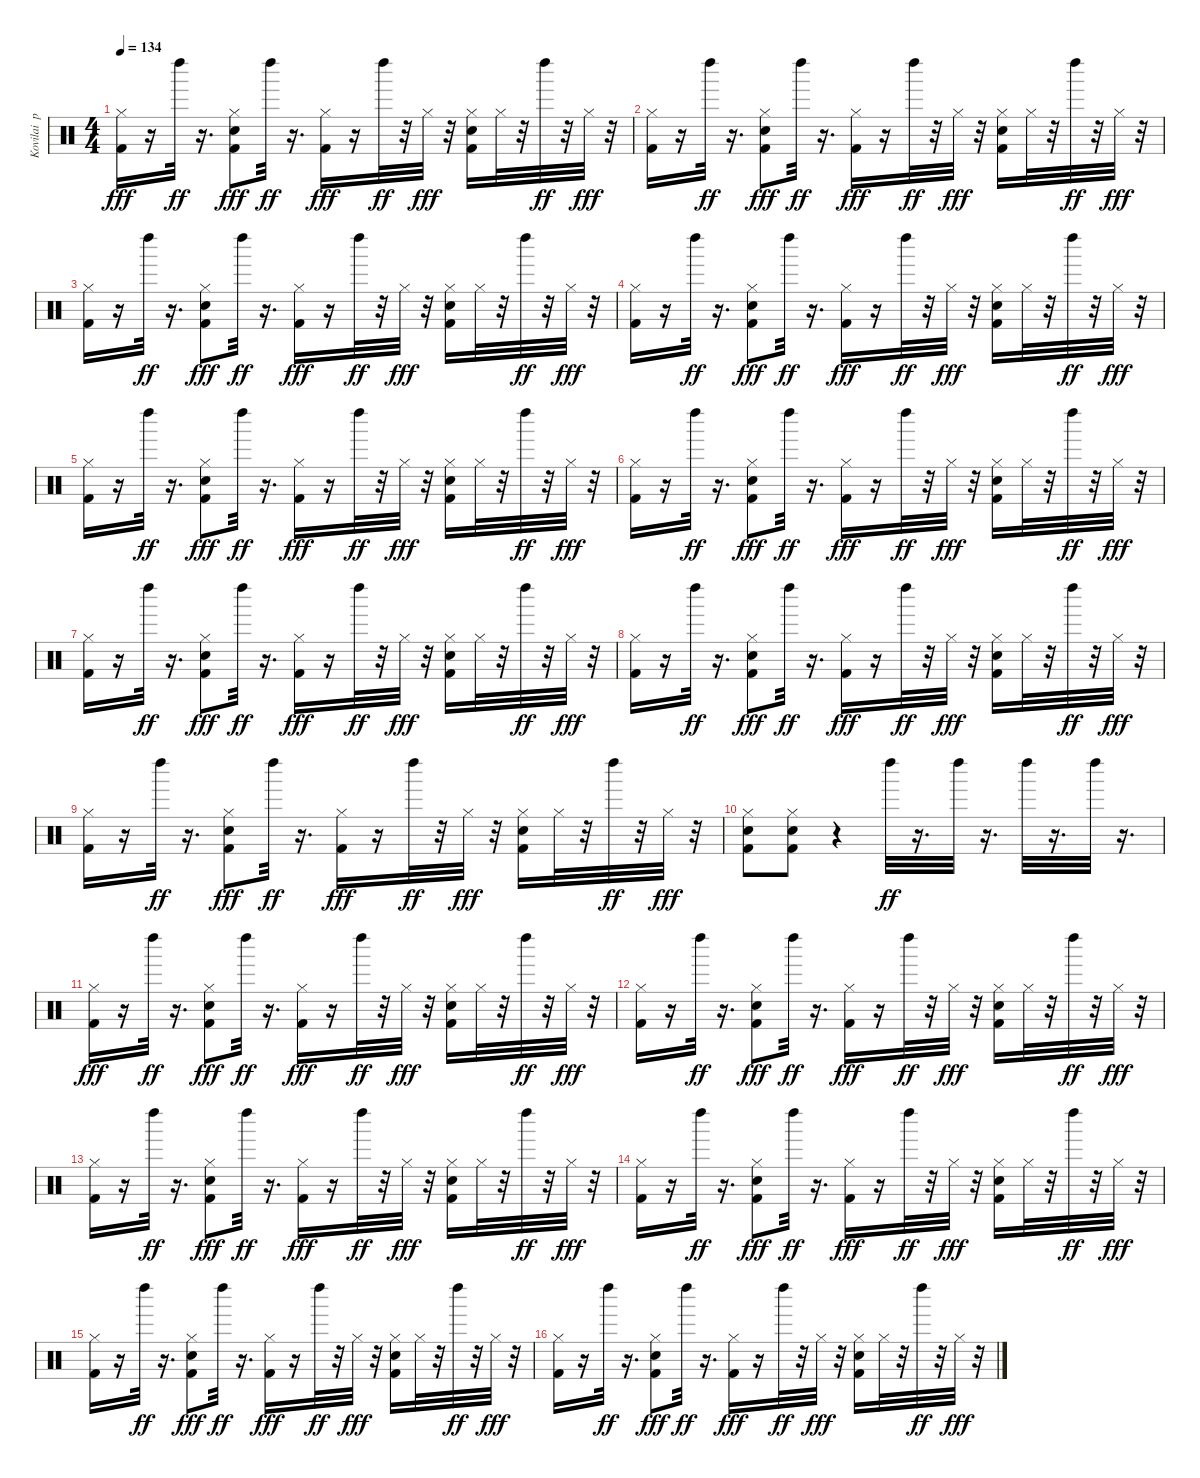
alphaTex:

\track ("Kovilai  po tihonechky:" "Kovilai  p") {instrument percussion}
\staff {score}
\articulation defaults
\ts (4 4)
\tempo 134
\clef neutral
\ks c
("Hi-Hat (closed)" "Kick (hit) 2").16{dy fff} r.16 "Left Maraca (hit)".32{dy ff} r.16{d} ("Snare (hit) 2" "Hi-Hat (closed)" "Kick (hit) 2").8{dy fff} "Left Maraca (hit)".32{dy ff} r.16{d} ("Hi-Hat (closed)" "Kick (hit) 2").16{dy fff} r.16 "Left Maraca (hit)".32{dy ff} r.32 "Hi-Hat (closed)".32{dy fff} r.32 ("Hi-Hat (closed)" "Snare (hit) 2" "Kick (hit) 2").16 "Hi-Hat (closed)".32 r.32 "Left Maraca (hit)".32{dy ff} r.32 "Hi-Hat (closed)".32{dy fff} r.32 |
("Hi-Hat (closed)" "Kick (hit) 2").16 r.16 "Left Maraca (hit)".32{dy ff} r.16{d} ("Snare (hit) 2" "Hi-Hat (closed)" "Kick (hit) 2").8{dy fff} "Left Maraca (hit)".32{dy ff} r.16{d} ("Hi-Hat (closed)" "Kick (hit) 2").16{dy fff} r.16 "Left Maraca (hit)".32{dy ff} r.32 "Hi-Hat (closed)".32{dy fff} r.32 ("Hi-Hat (closed)" "Snare (hit) 2" "Kick (hit) 2").16 "Hi-Hat (closed)".32 r.32 "Left Maraca (hit)".32{dy ff} r.32 "Hi-Hat (closed)".32{dy fff} r.32 |
("Hi-Hat (closed)" "Kick (hit) 2").16 r.16 "Left Maraca (hit)".32{dy ff} r.16{d} ("Snare (hit) 2" "Hi-Hat (closed)" "Kick (hit) 2").8{dy fff} "Left Maraca (hit)".32{dy ff} r.16{d} ("Hi-Hat (closed)" "Kick (hit) 2").16{dy fff} r.16 "Left Maraca (hit)".32{dy ff} r.32 "Hi-Hat (closed)".32{dy fff} r.32 ("Hi-Hat (closed)" "Snare (hit) 2" "Kick (hit) 2").16 "Hi-Hat (closed)".32 r.32 "Left Maraca (hit)".32{dy ff} r.32 "Hi-Hat (closed)".32{dy fff} r.32 |
("Hi-Hat (closed)" "Kick (hit) 2").16 r.16 "Left Maraca (hit)".32{dy ff} r.16{d} ("Snare (hit) 2" "Hi-Hat (closed)" "Kick (hit) 2").8{dy fff} "Left Maraca (hit)".32{dy ff} r.16{d} ("Hi-Hat (closed)" "Kick (hit) 2").16{dy fff} r.16 "Left Maraca (hit)".32{dy ff} r.32 "Hi-Hat (closed)".32{dy fff} r.32 ("Hi-Hat (closed)" "Snare (hit) 2" "Kick (hit) 2").16 "Hi-Hat (closed)".32 r.32 "Left Maraca (hit)".32{dy ff} r.32 "Hi-Hat (closed)".32{dy fff} r.32 |
("Hi-Hat (closed)" "Kick (hit) 2").16 r.16 "Left Maraca (hit)".32{dy ff} r.16{d} ("Snare (hit) 2" "Hi-Hat (closed)" "Kick (hit) 2").8{dy fff} "Left Maraca (hit)".32{dy ff} r.16{d} ("Hi-Hat (closed)" "Kick (hit) 2").16{dy fff} r.16 "Left Maraca (hit)".32{dy ff} r.32 "Hi-Hat (closed)".32{dy fff} r.32 ("Hi-Hat (closed)" "Snare (hit) 2" "Kick (hit) 2").16 "Hi-Hat (closed)".32 r.32 "Left Maraca (hit)".32{dy ff} r.32 "Hi-Hat (closed)".32{dy fff} r.32 |
("Hi-Hat (closed)" "Kick (hit) 2").16 r.16 "Left Maraca (hit)".32{dy ff} r.16{d} ("Snare (hit) 2" "Hi-Hat (closed)" "Kick (hit) 2").8{dy fff} "Left Maraca (hit)".32{dy ff} r.16{d} ("Hi-Hat (closed)" "Kick (hit) 2").16{dy fff} r.16 "Left Maraca (hit)".32{dy ff} r.32 "Hi-Hat (closed)".32{dy fff} r.32 ("Hi-Hat (closed)" "Snare (hit) 2" "Kick (hit) 2").16 "Hi-Hat (closed)".32 r.32 "Left Maraca (hit)".32{dy ff} r.32 "Hi-Hat (closed)".32{dy fff} r.32 |
("Hi-Hat (closed)" "Kick (hit) 2").16 r.16 "Left Maraca (hit)".32{dy ff} r.16{d} ("Snare (hit) 2" "Hi-Hat (closed)" "Kick (hit) 2").8{dy fff} "Left Maraca (hit)".32{dy ff} r.16{d} ("Hi-Hat (closed)" "Kick (hit) 2").16{dy fff} r.16 "Left Maraca (hit)".32{dy ff} r.32 "Hi-Hat (closed)".32{dy fff} r.32 ("Hi-Hat (closed)" "Snare (hit) 2" "Kick (hit) 2").16 "Hi-Hat (closed)".32 r.32 "Left Maraca (hit)".32{dy ff} r.32 "Hi-Hat (closed)".32{dy fff} r.32 |
("Hi-Hat (closed)" "Kick (hit) 2").16 r.16 "Left Maraca (hit)".32{dy ff} r.16{d} ("Snare (hit) 2" "Hi-Hat (closed)" "Kick (hit) 2").8{dy fff} "Left Maraca (hit)".32{dy ff} r.16{d} ("Hi-Hat (closed)" "Kick (hit) 2").16{dy fff} r.16 "Left Maraca (hit)".32{dy ff} r.32 "Hi-Hat (closed)".32{dy fff} r.32 ("Hi-Hat (closed)" "Snare (hit) 2" "Kick (hit) 2").16 "Hi-Hat (closed)".32 r.32 "Left Maraca (hit)".32{dy ff} r.32 "Hi-Hat (closed)".32{dy fff} r.32 |
("Hi-Hat (closed)" "Kick (hit) 2").16 r.16 "Left Maraca (hit)".32{dy ff} r.16{d} ("Snare (hit) 2" "Hi-Hat (closed)" "Kick (hit) 2").8{dy fff} "Left Maraca (hit)".32{dy ff} r.16{d} ("Hi-Hat (closed)" "Kick (hit) 2").16{dy fff} r.16 "Left Maraca (hit)".32{dy ff} r.32 "Hi-Hat (closed)".32{dy fff} r.32 ("Hi-Hat (closed)" "Snare (hit) 2" "Kick (hit) 2").16 "Hi-Hat (closed)".32 r.32 "Left Maraca (hit)".32{dy ff} r.32 "Hi-Hat (closed)".32{dy fff} r.32 |
("Snare (hit) 2" "Hi-Hat (closed)" "Kick (hit) 2").8 ("Snare (hit) 2" "Hi-Hat (closed)" "Kick (hit) 2").8 r.4 "Left Maraca (hit)".32{dy ff} r.16{d} "Left Maraca (hit)".32 r.16{d} "Left Maraca (hit)".32 r.16{d} "Left Maraca (hit)".32 r.16{d} |
("Hi-Hat (closed)" "Kick (hit) 2").16{dy fff} r.16 "Left Maraca (hit)".32{dy ff} r.16{d} ("Snare (hit) 2" "Hi-Hat (closed)" "Kick (hit) 2").8{dy fff} "Left Maraca (hit)".32{dy ff} r.16{d} ("Hi-Hat (closed)" "Kick (hit) 2").16{dy fff} r.16 "Left Maraca (hit)".32{dy ff} r.32 "Hi-Hat (closed)".32{dy fff} r.32 ("Hi-Hat (closed)" "Snare (hit) 2" "Kick (hit) 2").16 "Hi-Hat (closed)".32 r.32 "Left Maraca (hit)".32{dy ff} r.32 "Hi-Hat (closed)".32{dy fff} r.32 |
("Hi-Hat (closed)" "Kick (hit) 2").16 r.16 "Left Maraca (hit)".32{dy ff} r.16{d} ("Snare (hit) 2" "Hi-Hat (closed)" "Kick (hit) 2").8{dy fff} "Left Maraca (hit)".32{dy ff} r.16{d} ("Hi-Hat (closed)" "Kick (hit) 2").16{dy fff} r.16 "Left Maraca (hit)".32{dy ff} r.32 "Hi-Hat (closed)".32{dy fff} r.32 ("Hi-Hat (closed)" "Snare (hit) 2" "Kick (hit) 2").16 "Hi-Hat (closed)".32 r.32 "Left Maraca (hit)".32{dy ff} r.32 "Hi-Hat (closed)".32{dy fff} r.32 |
("Hi-Hat (closed)" "Kick (hit) 2").16 r.16 "Left Maraca (hit)".32{dy ff} r.16{d} ("Snare (hit) 2" "Hi-Hat (closed)" "Kick (hit) 2").8{dy fff} "Left Maraca (hit)".32{dy ff} r.16{d} ("Hi-Hat (closed)" "Kick (hit) 2").16{dy fff} r.16 "Left Maraca (hit)".32{dy ff} r.32 "Hi-Hat (closed)".32{dy fff} r.32 ("Hi-Hat (closed)" "Snare (hit) 2" "Kick (hit) 2").16 "Hi-Hat (closed)".32 r.32 "Left Maraca (hit)".32{dy ff} r.32 "Hi-Hat (closed)".32{dy fff} r.32 |
("Hi-Hat (closed)" "Kick (hit) 2").16 r.16 "Left Maraca (hit)".32{dy ff} r.16{d} ("Snare (hit) 2" "Hi-Hat (closed)" "Kick (hit) 2").8{dy fff} "Left Maraca (hit)".32{dy ff} r.16{d} ("Hi-Hat (closed)" "Kick (hit) 2").16{dy fff} r.16 "Left Maraca (hit)".32{dy ff} r.32 "Hi-Hat (closed)".32{dy fff} r.32 ("Hi-Hat (closed)" "Snare (hit) 2" "Kick (hit) 2").16 "Hi-Hat (closed)".32 r.32 "Left Maraca (hit)".32{dy ff} r.32 "Hi-Hat (closed)".32{dy fff} r.32 |
("Hi-Hat (closed)" "Kick (hit) 2").16 r.16 "Left Maraca (hit)".32{dy ff} r.16{d} ("Snare (hit) 2" "Hi-Hat (closed)" "Kick (hit) 2").8{dy fff} "Left Maraca (hit)".32{dy ff} r.16{d} ("Hi-Hat (closed)" "Kick (hit) 2").16{dy fff} r.16 "Left Maraca (hit)".32{dy ff} r.32 "Hi-Hat (closed)".32{dy fff} r.32 ("Hi-Hat (closed)" "Snare (hit) 2" "Kick (hit) 2").16 "Hi-Hat (closed)".32 r.32 "Left Maraca (hit)".32{dy ff} r.32 "Hi-Hat (closed)".32{dy fff} r.32 |
("Hi-Hat (closed)" "Kick (hit) 2").16 r.16 "Left Maraca (hit)".32{dy ff} r.16{d} ("Snare (hit) 2" "Hi-Hat (closed)" "Kick (hit) 2").8{dy fff} "Left Maraca (hit)".32{dy ff} r.16{d} ("Hi-Hat (closed)" "Kick (hit) 2").16{dy fff} r.16 "Left Maraca (hit)".32{dy ff} r.32 "Hi-Hat (closed)".32{dy fff} r.32 ("Hi-Hat (closed)" "Snare (hit) 2" "Kick (hit) 2").16 "Hi-Hat (closed)".32 r.32 "Left Maraca (hit)".32{dy ff} r.32 "Hi-Hat (closed)".32{dy fff} r.32
